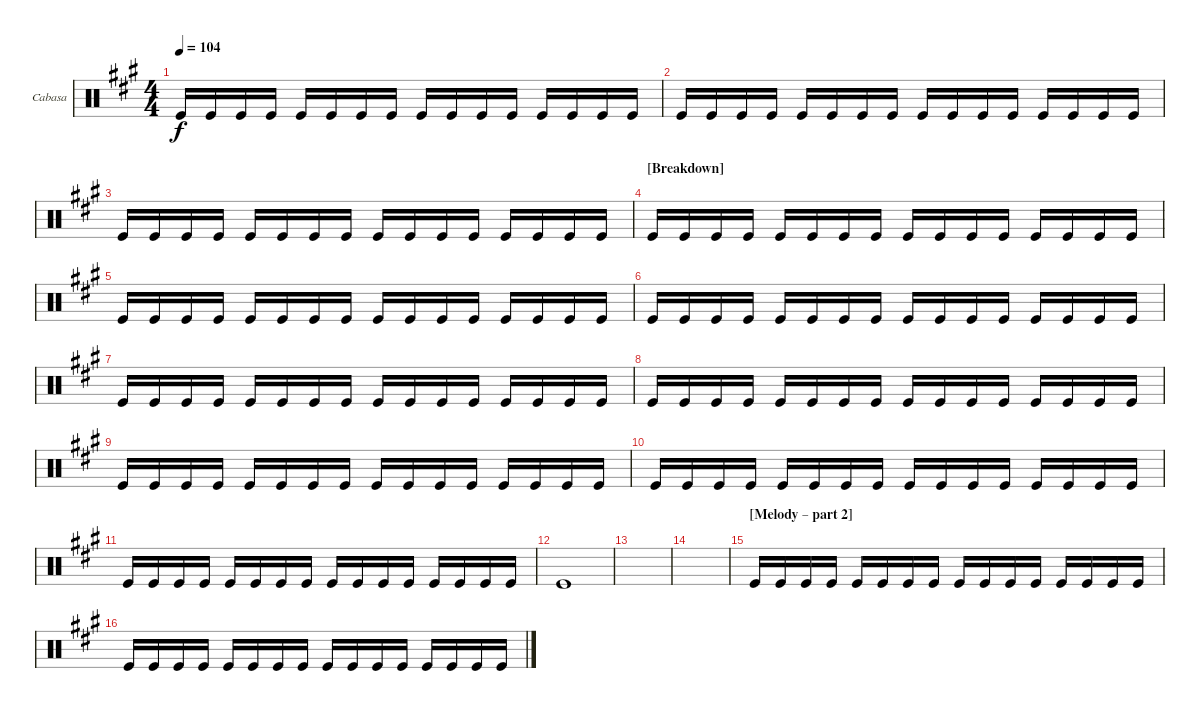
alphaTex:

\bracketExtendMode groupsimilarinstruments
\firstSystemTrackNameOrientation horizontal
\otherSystemsTrackNameOrientation horizontal
\track ("Cabasa" "Cabasa") {instrument percussion}
\staff {score}
\articulation defaults
\ts (4 4)
\tempo 104
\clef neutral
\ks a "Kick (hit)".16{dy f} "Kick (hit)".16 "Kick (hit)".16 "Kick (hit)".16 "Kick (hit)".16 "Kick (hit)".16 "Kick (hit)".16 "Kick (hit)".16 "Kick (hit)".16 "Kick (hit)".16 "Kick (hit)".16 "Kick (hit)".16 "Kick (hit)".16 "Kick (hit)".16 "Kick (hit)".16 "Kick (hit)".16
|
"Kick (hit)".16 "Kick (hit)".16 "Kick (hit)".16 "Kick (hit)".16 "Kick (hit)".16 "Kick (hit)".16 "Kick (hit)".16 "Kick (hit)".16 "Kick (hit)".16 "Kick (hit)".16 "Kick (hit)".16 "Kick (hit)".16 "Kick (hit)".16 "Kick (hit)".16 "Kick (hit)".16 "Kick (hit)".16 |
"Kick (hit)".16 "Kick (hit)".16 "Kick (hit)".16 "Kick (hit)".16 "Kick (hit)".16 "Kick (hit)".16 "Kick (hit)".16 "Kick (hit)".16 "Kick (hit)".16 "Kick (hit)".16 "Kick (hit)".16 "Kick (hit)".16 "Kick (hit)".16 "Kick (hit)".16 "Kick (hit)".16 "Kick (hit)".16 |
\section ("" "[Breakdown]")
"Kick (hit)".16 "Kick (hit)".16 "Kick (hit)".16 "Kick (hit)".16 "Kick (hit)".16 "Kick (hit)".16 "Kick (hit)".16 "Kick (hit)".16 "Kick (hit)".16 "Kick (hit)".16 "Kick (hit)".16 "Kick (hit)".16 "Kick (hit)".16 "Kick (hit)".16 "Kick (hit)".16 "Kick (hit)".16 |
"Kick (hit)".16 "Kick (hit)".16 "Kick (hit)".16 "Kick (hit)".16 "Kick (hit)".16 "Kick (hit)".16 "Kick (hit)".16 "Kick (hit)".16 "Kick (hit)".16 "Kick (hit)".16 "Kick (hit)".16 "Kick (hit)".16 "Kick (hit)".16 "Kick (hit)".16 "Kick (hit)".16 "Kick (hit)".16 |
"Kick (hit)".16 "Kick (hit)".16 "Kick (hit)".16 "Kick (hit)".16 "Kick (hit)".16 "Kick (hit)".16 "Kick (hit)".16 "Kick (hit)".16 "Kick (hit)".16 "Kick (hit)".16 "Kick (hit)".16 "Kick (hit)".16 "Kick (hit)".16 "Kick (hit)".16 "Kick (hit)".16 "Kick (hit)".16 |
"Kick (hit)".16 "Kick (hit)".16 "Kick (hit)".16 "Kick (hit)".16 "Kick (hit)".16 "Kick (hit)".16 "Kick (hit)".16 "Kick (hit)".16 "Kick (hit)".16 "Kick (hit)".16 "Kick (hit)".16 "Kick (hit)".16 "Kick (hit)".16 "Kick (hit)".16 "Kick (hit)".16 "Kick (hit)".16 |
"Kick (hit)".16 "Kick (hit)".16 "Kick (hit)".16 "Kick (hit)".16 "Kick (hit)".16 "Kick (hit)".16 "Kick (hit)".16 "Kick (hit)".16 "Kick (hit)".16 "Kick (hit)".16 "Kick (hit)".16 "Kick (hit)".16 "Kick (hit)".16 "Kick (hit)".16 "Kick (hit)".16 "Kick (hit)".16 |
"Kick (hit)".16 "Kick (hit)".16 "Kick (hit)".16 "Kick (hit)".16 "Kick (hit)".16 "Kick (hit)".16 "Kick (hit)".16 "Kick (hit)".16 "Kick (hit)".16 "Kick (hit)".16 "Kick (hit)".16 "Kick (hit)".16 "Kick (hit)".16 "Kick (hit)".16 "Kick (hit)".16 "Kick (hit)".16 |
"Kick (hit)".16 "Kick (hit)".16 "Kick (hit)".16 "Kick (hit)".16 "Kick (hit)".16 "Kick (hit)".16 "Kick (hit)".16 "Kick (hit)".16 "Kick (hit)".16 "Kick (hit)".16 "Kick (hit)".16 "Kick (hit)".16 "Kick (hit)".16 "Kick (hit)".16 "Kick (hit)".16 "Kick (hit)".16 |
"Kick (hit)".16 "Kick (hit)".16 "Kick (hit)".16 "Kick (hit)".16 "Kick (hit)".16 "Kick (hit)".16 "Kick (hit)".16 "Kick (hit)".16 "Kick (hit)".16 "Kick (hit)".16 "Kick (hit)".16 "Kick (hit)".16 "Kick (hit)".16 "Kick (hit)".16 "Kick (hit)".16 "Kick (hit)".16 |
"Kick (hit)".1 |
|
|
\section ("" "[Melody – part 2] ")
"Kick (hit)".16 "Kick (hit)".16 "Kick (hit)".16 "Kick (hit)".16 "Kick (hit)".16 "Kick (hit)".16 "Kick (hit)".16 "Kick (hit)".16 "Kick (hit)".16 "Kick (hit)".16 "Kick (hit)".16 "Kick (hit)".16 "Kick (hit)".16 "Kick (hit)".16 "Kick (hit)".16 "Kick (hit)".16 |
"Kick (hit)".16 "Kick (hit)".16 "Kick (hit)".16 "Kick (hit)".16 "Kick (hit)".16 "Kick (hit)".16 "Kick (hit)".16 "Kick (hit)".16 "Kick (hit)".16 "Kick (hit)".16 "Kick (hit)".16 "Kick (hit)".16 "Kick (hit)".16 "Kick (hit)".16 "Kick (hit)".16 "Kick (hit)".16
